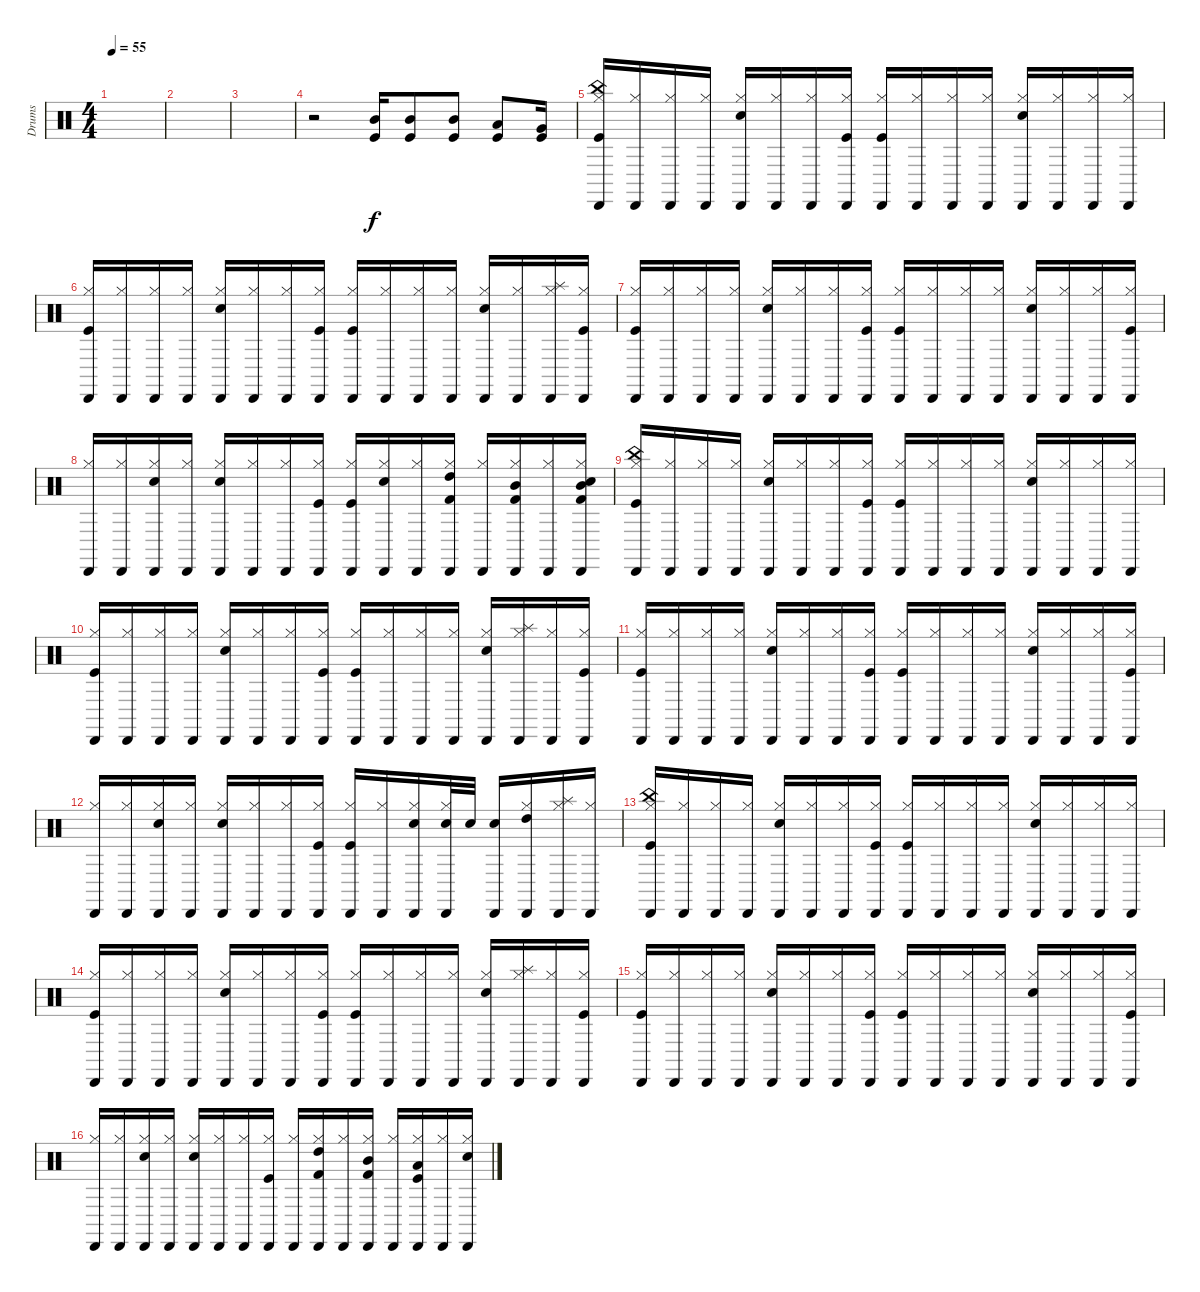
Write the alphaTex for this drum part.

\track ("Drums" "Drums") {instrument percussion}
\staff {score}
\articulation defaults
\ts (4 4)
\tempo 55
\clef neutral
\ks c
|
|
|
r.2 ("Mid Tom (hit)" "Kick (hit)").16 ("Mid Tom (hit)" "Kick (hit)").8 ("Mid Tom (hit)" "Kick (hit)").8 ("Low Tom (hit)" "Kick (hit)").8 ("Very Low Tom (hit)" "Kick (hit)").16 |
("Cabasa (hit)" "Hi-Hat (closed)" "China (hit)" "Kick (hit)").16 ("Cabasa (hit)" "Hi-Hat (closed)").16 ("Cabasa (hit)" "Hi-Hat (closed)").16 ("Cabasa (hit)" "Hi-Hat (closed)").16 ("Cabasa (hit)" "Hi-Hat (closed)" "Snare (hit) 2").16 ("Cabasa (hit)" "Hi-Hat (closed)").16 ("Cabasa (hit)" "Hi-Hat (closed)").16 ("Cabasa (hit)" "Hi-Hat (closed)" "Kick (hit)").16 ("Cabasa (hit)" "Hi-Hat (closed)" "Kick (hit)").16 ("Cabasa (hit)" "Hi-Hat (closed)").16 ("Cabasa (hit)" "Hi-Hat (closed)").16 ("Cabasa (hit)" "Hi-Hat (closed)").16 ("Cabasa (hit)" "Hi-Hat (closed)" "Snare (hit) 2").16 ("Cabasa (hit)" "Hi-Hat (closed)").16 ("Cabasa (hit)" "Hi-Hat (closed)").16 ("Cabasa (hit)" "Hi-Hat (closed)").16 |
("Cabasa (hit)" "Hi-Hat (closed)" "Kick (hit)").16 ("Cabasa (hit)" "Hi-Hat (closed)").16 ("Cabasa (hit)" "Hi-Hat (closed)").16 ("Cabasa (hit)" "Hi-Hat (closed)").16 ("Cabasa (hit)" "Hi-Hat (closed)" "Snare (hit) 2").16 ("Cabasa (hit)" "Hi-Hat (closed)").16 ("Cabasa (hit)" "Hi-Hat (closed)").16 ("Cabasa (hit)" "Hi-Hat (closed)" "Kick (hit)").16 ("Cabasa (hit)" "Hi-Hat (closed)" "Kick (hit)").16 ("Cabasa (hit)" "Hi-Hat (closed)").16 ("Cabasa (hit)" "Hi-Hat (closed)").16 ("Cabasa (hit)" "Hi-Hat (closed)").16 ("Cabasa (hit)" "Hi-Hat (closed)" "Snare (hit) 2").16 ("Cabasa (hit)" "Hi-Hat (closed)").16 ("Cabasa (hit)" "Hi-Hat (closed)" "Splash (hit)").16 ("Cabasa (hit)" "Hi-Hat (closed)" "Kick (hit)").16 |
("Cabasa (hit)" "Hi-Hat (closed)" "Kick (hit)").16 ("Cabasa (hit)" "Hi-Hat (closed)").16 ("Cabasa (hit)" "Hi-Hat (closed)").16 ("Cabasa (hit)" "Hi-Hat (closed)").16 ("Cabasa (hit)" "Hi-Hat (closed)" "Snare (hit) 2").16 ("Cabasa (hit)" "Hi-Hat (closed)").16 ("Cabasa (hit)" "Hi-Hat (closed)").16 ("Cabasa (hit)" "Hi-Hat (closed)" "Kick (hit)").16 ("Cabasa (hit)" "Hi-Hat (closed)" "Kick (hit)").16 ("Cabasa (hit)" "Hi-Hat (closed)").16 ("Cabasa (hit)" "Hi-Hat (closed)").16 ("Cabasa (hit)" "Hi-Hat (closed)").16 ("Cabasa (hit)" "Hi-Hat (closed)" "Snare (hit) 2").16 ("Cabasa (hit)" "Hi-Hat (closed)").16 ("Cabasa (hit)" "Hi-Hat (closed)").16 ("Cabasa (hit)" "Hi-Hat (closed)" "Kick (hit)").16 |
("Cabasa (hit)" "Hi-Hat (closed)").16 ("Cabasa (hit)" "Hi-Hat (closed)").16 ("Cabasa (hit)" "Hi-Hat (closed)" "Snare (hit) 2").16 ("Cabasa (hit)" "Hi-Hat (closed)").16 ("Cabasa (hit)" "Hi-Hat (closed)" "Snare (hit) 2").16 ("Cabasa (hit)" "Hi-Hat (closed)").16 ("Cabasa (hit)" "Hi-Hat (closed)").16 ("Cabasa (hit)" "Hi-Hat (closed)" "Kick (hit)").16 ("Cabasa (hit)" "Hi-Hat (closed)" "Kick (hit)").16 ("Cabasa (hit)" "Hi-Hat (closed)" "Electric Snare (hit)").16 ("Cabasa (hit)" "Hi-Hat (closed)").16 ("Cabasa (hit)" "Hi-Hat (closed)" "High Tom (hit)" "Kick (hit) 2").16 ("Cabasa (hit)" "Hi-Hat (closed)").16 ("Cabasa (hit)" "Hi-Hat (closed)" "Mid Tom (hit)" "Kick (hit) 2").16 ("Cabasa (hit)" "Hi-Hat (closed)").16 ("Cabasa (hit)" "Hi-Hat (closed)" "Mid Tom (hit)" "Electric Snare (hit)" "Kick (hit) 2").16 |
("Cabasa (hit)" "Hi-Hat (closed)" "China (hit)" "Kick (hit)").16 ("Cabasa (hit)" "Hi-Hat (closed)").16 ("Cabasa (hit)" "Hi-Hat (closed)").16 ("Cabasa (hit)" "Hi-Hat (closed)").16 ("Cabasa (hit)" "Hi-Hat (closed)" "Snare (hit) 2").16 ("Cabasa (hit)" "Hi-Hat (closed)").16 ("Cabasa (hit)" "Hi-Hat (closed)").16 ("Cabasa (hit)" "Hi-Hat (closed)" "Kick (hit)").16 ("Cabasa (hit)" "Hi-Hat (closed)" "Kick (hit)").16 ("Cabasa (hit)" "Hi-Hat (closed)").16 ("Cabasa (hit)" "Hi-Hat (closed)").16 ("Cabasa (hit)" "Hi-Hat (closed)").16 ("Cabasa (hit)" "Hi-Hat (closed)" "Snare (hit) 2").16 ("Cabasa (hit)" "Hi-Hat (closed)").16 ("Cabasa (hit)" "Hi-Hat (closed)").16 ("Cabasa (hit)" "Hi-Hat (closed)").16 |
("Cabasa (hit)" "Hi-Hat (closed)" "Kick (hit)").16 ("Cabasa (hit)" "Hi-Hat (closed)").16 ("Cabasa (hit)" "Hi-Hat (closed)").16 ("Cabasa (hit)" "Hi-Hat (closed)").16 ("Cabasa (hit)" "Hi-Hat (closed)" "Snare (hit) 2").16 ("Cabasa (hit)" "Hi-Hat (closed)").16 ("Cabasa (hit)" "Hi-Hat (closed)").16 ("Cabasa (hit)" "Hi-Hat (closed)" "Kick (hit)").16 ("Cabasa (hit)" "Hi-Hat (closed)" "Kick (hit)").16 ("Cabasa (hit)" "Hi-Hat (closed)").16 ("Cabasa (hit)" "Hi-Hat (closed)").16 ("Cabasa (hit)" "Hi-Hat (closed)").16 ("Cabasa (hit)" "Hi-Hat (closed)" "Snare (hit) 2").16 ("Cabasa (hit)" "Hi-Hat (closed)" "Splash (hit)").16 ("Cabasa (hit)" "Hi-Hat (closed)").16 ("Cabasa (hit)" "Hi-Hat (closed)" "Kick (hit)").16 |
("Cabasa (hit)" "Hi-Hat (closed)" "Kick (hit)").16 ("Cabasa (hit)" "Hi-Hat (closed)").16 ("Cabasa (hit)" "Hi-Hat (closed)").16 ("Cabasa (hit)" "Hi-Hat (closed)").16 ("Cabasa (hit)" "Hi-Hat (closed)" "Snare (hit) 2").16 ("Cabasa (hit)" "Hi-Hat (closed)").16 ("Cabasa (hit)" "Hi-Hat (closed)").16 ("Cabasa (hit)" "Hi-Hat (closed)" "Kick (hit)").16 ("Cabasa (hit)" "Hi-Hat (closed)" "Kick (hit)").16 ("Cabasa (hit)" "Hi-Hat (closed)").16 ("Cabasa (hit)" "Hi-Hat (closed)").16 ("Cabasa (hit)" "Hi-Hat (closed)").16 ("Cabasa (hit)" "Hi-Hat (closed)" "Snare (hit) 2").16 ("Cabasa (hit)" "Hi-Hat (closed)").16 ("Cabasa (hit)" "Hi-Hat (closed)").16 ("Cabasa (hit)" "Hi-Hat (closed)" "Kick (hit)").16 |
("Cabasa (hit)" "Hi-Hat (closed)").16 ("Cabasa (hit)" "Hi-Hat (closed)").16 ("Cabasa (hit)" "Hi-Hat (closed)" "Snare (hit) 2").16 ("Cabasa (hit)" "Hi-Hat (closed)").16 ("Cabasa (hit)" "Hi-Hat (closed)" "Snare (hit) 2").16 ("Cabasa (hit)" "Hi-Hat (closed)").16 ("Cabasa (hit)" "Hi-Hat (closed)").16 ("Cabasa (hit)" "Hi-Hat (closed)" "Kick (hit)").16 ("Cabasa (hit)" "Hi-Hat (closed)" "Kick (hit)").16 ("Cabasa (hit)" "Hi-Hat (closed)").16 ("Cabasa (hit)" "Hi-Hat (closed)" "Snare (hit) 2").16 ("Cabasa (hit)" "Hi-Hat (closed)" "Snare (hit) 2").32 "Snare (hit) 2".32 ("Cabasa (hit)" "Snare (hit) 2").16 ("Cabasa (hit)" "Hi-Hat (closed)" "High Tom (hit)").16 ("Cabasa (hit)" "Hi-Hat (closed)" "Splash (hit)").16 ("Cabasa (hit)" "Hi-Hat (closed)").16 |
("Cabasa (hit)" "Hi-Hat (closed)" "China (hit)" "Kick (hit)").16 ("Cabasa (hit)" "Hi-Hat (closed)").16 ("Cabasa (hit)" "Hi-Hat (closed)").16 ("Cabasa (hit)" "Hi-Hat (closed)").16 ("Cabasa (hit)" "Hi-Hat (closed)" "Snare (hit) 2").16 ("Cabasa (hit)" "Hi-Hat (closed)").16 ("Cabasa (hit)" "Hi-Hat (closed)").16 ("Cabasa (hit)" "Hi-Hat (closed)" "Kick (hit)").16 ("Cabasa (hit)" "Hi-Hat (closed)" "Kick (hit)").16 ("Cabasa (hit)" "Hi-Hat (closed)").16 ("Cabasa (hit)" "Hi-Hat (closed)").16 ("Cabasa (hit)" "Hi-Hat (closed)").16 ("Cabasa (hit)" "Hi-Hat (closed)" "Snare (hit) 2").16 ("Cabasa (hit)" "Hi-Hat (closed)").16 ("Cabasa (hit)" "Hi-Hat (closed)").16 ("Cabasa (hit)" "Hi-Hat (closed)").16 |
("Cabasa (hit)" "Hi-Hat (closed)" "Kick (hit)").16 ("Cabasa (hit)" "Hi-Hat (closed)").16 ("Cabasa (hit)" "Hi-Hat (closed)").16 ("Cabasa (hit)" "Hi-Hat (closed)").16 ("Cabasa (hit)" "Hi-Hat (closed)" "Snare (hit) 2").16 ("Cabasa (hit)" "Hi-Hat (closed)").16 ("Cabasa (hit)" "Hi-Hat (closed)").16 ("Cabasa (hit)" "Hi-Hat (closed)" "Kick (hit)").16 ("Cabasa (hit)" "Hi-Hat (closed)" "Kick (hit)").16 ("Cabasa (hit)" "Hi-Hat (closed)").16 ("Cabasa (hit)" "Hi-Hat (closed)").16 ("Cabasa (hit)" "Hi-Hat (closed)").16 ("Cabasa (hit)" "Hi-Hat (closed)" "Snare (hit) 2").16 ("Cabasa (hit)" "Hi-Hat (closed)" "Splash (hit)").16 ("Cabasa (hit)" "Hi-Hat (closed)").16 ("Cabasa (hit)" "Hi-Hat (closed)" "Kick (hit)").16 |
("Cabasa (hit)" "Hi-Hat (closed)" "Kick (hit)").16 ("Cabasa (hit)" "Hi-Hat (closed)").16 ("Cabasa (hit)" "Hi-Hat (closed)").16 ("Cabasa (hit)" "Hi-Hat (closed)").16 ("Cabasa (hit)" "Hi-Hat (closed)" "Snare (hit) 2").16 ("Cabasa (hit)" "Hi-Hat (closed)").16 ("Cabasa (hit)" "Hi-Hat (closed)").16 ("Cabasa (hit)" "Hi-Hat (closed)" "Kick (hit)").16 ("Cabasa (hit)" "Hi-Hat (closed)" "Kick (hit)").16 ("Cabasa (hit)" "Hi-Hat (closed)").16 ("Cabasa (hit)" "Hi-Hat (closed)").16 ("Cabasa (hit)" "Hi-Hat (closed)").16 ("Cabasa (hit)" "Hi-Hat (closed)" "Snare (hit) 2").16 ("Cabasa (hit)" "Hi-Hat (closed)").16 ("Cabasa (hit)" "Hi-Hat (closed)").16 ("Cabasa (hit)" "Hi-Hat (closed)" "Kick (hit)").16 |
("Cabasa (hit)" "Hi-Hat (closed)").16 ("Cabasa (hit)" "Hi-Hat (closed)").16 ("Cabasa (hit)" "Hi-Hat (closed)" "Snare (hit) 2").16 ("Cabasa (hit)" "Hi-Hat (closed)").16 ("Cabasa (hit)" "Hi-Hat (closed)" "Snare (hit) 2").16 ("Cabasa (hit)" "Hi-Hat (closed)").16 ("Cabasa (hit)" "Hi-Hat (closed)").16 ("Cabasa (hit)" "Hi-Hat (closed)" "Kick (hit)").16 ("Cabasa (hit)" "Hi-Hat (closed)").16 ("Cabasa (hit)" "Hi-Hat (closed)" "High Tom (hit)" "Kick (hit) 2").16 ("Cabasa (hit)" "Hi-Hat (closed)").16 ("Cabasa (hit)" "Hi-Hat (closed)" "Mid Tom (hit)" "Kick (hit) 2").16 ("Cabasa (hit)" "Hi-Hat (closed)").16 ("Cabasa (hit)" "Hi-Hat (closed)" "Low Tom (hit)" "Kick (hit)").16 ("Cabasa (hit)" "Hi-Hat (closed)").16 ("Cabasa (hit)" "Hi-Hat (closed)" "Snare (hit) 2").16
